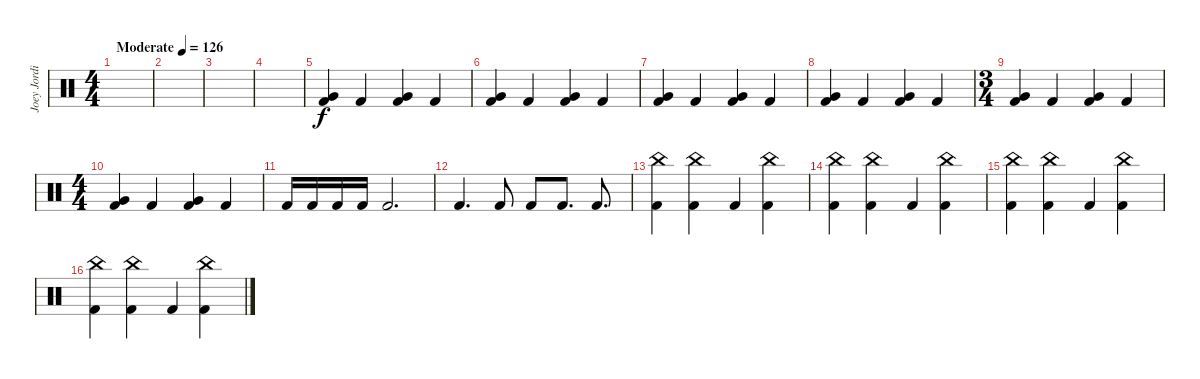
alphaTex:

\track ("Joey Jordison" "Joey Jordi") {instrument percussion}
\staff {score}
\articulation defaults
\ts (4 4)
\tempo (126 "Moderate")
\clef neutral
\ks c
|
|
|
|
("Kick (hit) 2" "Very Low Tom (hit)").4 "Kick (hit) 2".4 ("Kick (hit) 2" "Very Low Tom (hit)").4 "Kick (hit) 2".4 |
("Kick (hit) 2" "Very Low Tom (hit)").4 "Kick (hit) 2".4 ("Kick (hit) 2" "Very Low Tom (hit)").4 "Kick (hit) 2".4 |
("Kick (hit) 2" "Very Low Tom (hit)").4 "Kick (hit) 2".4 ("Kick (hit) 2" "Very Low Tom (hit)").4 "Kick (hit) 2".4 |
("Kick (hit) 2" "Very Low Tom (hit)").4 "Kick (hit) 2".4 ("Kick (hit) 2" "Very Low Tom (hit)").4 "Kick (hit) 2".4 |
\ts (3 4)
("Kick (hit) 2" "Very Low Tom (hit)").4 "Kick (hit) 2".4 ("Kick (hit) 2" "Very Low Tom (hit)").4 "Kick (hit) 2".4 |
\ts (4 4)
("Kick (hit) 2" "Very Low Tom (hit)").4 "Kick (hit) 2".4 ("Kick (hit) 2" "Very Low Tom (hit)").4 "Kick (hit) 2".4 |
"Kick (hit) 2".16 "Kick (hit) 2".16 "Kick (hit) 2".16 "Kick (hit) 2".16 "Kick (hit) 2".2{d} |
"Kick (hit) 2".4{d} "Kick (hit) 2".8 "Kick (hit) 2".8 "Kick (hit) 2".8{d} "Kick (hit) 2".8{d} |
("China (hit)" "Kick (hit) 2").4 ("China (hit)" "Kick (hit) 2").4 "Kick (hit) 2".4 ("China (hit)" "Kick (hit) 2").4 |
("China (hit)" "Kick (hit) 2").4 ("China (hit)" "Kick (hit) 2").4 "Kick (hit) 2".4 ("China (hit)" "Kick (hit) 2").4 |
("China (hit)" "Kick (hit) 2").4 ("China (hit)" "Kick (hit) 2").4 "Kick (hit) 2".4 ("China (hit)" "Kick (hit) 2").4 |
("China (hit)" "Kick (hit) 2").4 ("China (hit)" "Kick (hit) 2").4 "Kick (hit) 2".4 ("China (hit)" "Kick (hit) 2").4
